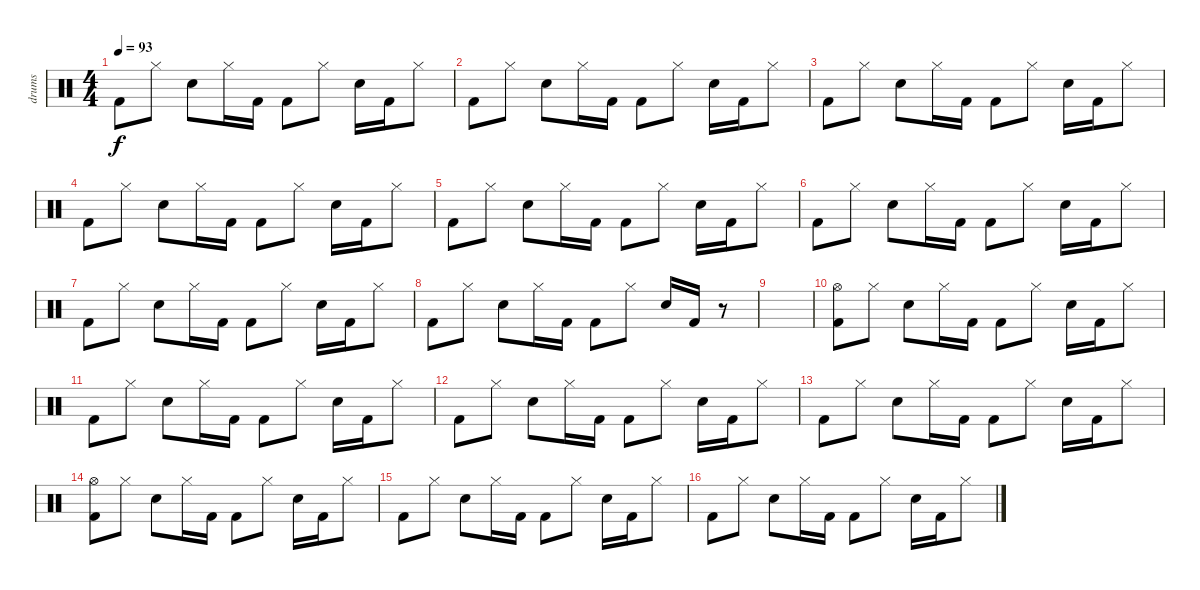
\track ("drums" "drums") {instrument percussion}
\staff {score}
\articulation defaults
\ts (4 4)
\tempo 93
\clef neutral
\ks c "Kick (hit) 2".8{dy f} "Hi-Hat (closed)".8 "Snare (hit) 2".8 "Hi-Hat (closed)".16 "Kick (hit) 2".16 "Kick (hit) 2".8 "Hi-Hat (closed)".8 "Snare (hit) 2".16 "Kick (hit) 2".16 "Hi-Hat (closed)".8
|
"Kick (hit) 2".8 "Hi-Hat (closed)".8 "Snare (hit) 2".8 "Hi-Hat (closed)".16 "Kick (hit) 2".16 "Kick (hit) 2".8 "Hi-Hat (closed)".8 "Snare (hit) 2".16 "Kick (hit) 2".16 "Hi-Hat (closed)".8 |
"Kick (hit) 2".8 "Hi-Hat (closed)".8 "Snare (hit) 2".8 "Hi-Hat (closed)".16 "Kick (hit) 2".16 "Kick (hit) 2".8 "Hi-Hat (closed)".8 "Snare (hit) 2".16 "Kick (hit) 2".16 "Hi-Hat (closed)".8 |
"Kick (hit) 2".8 "Hi-Hat (closed)".8 "Snare (hit) 2".8 "Hi-Hat (closed)".16 "Kick (hit) 2".16 "Kick (hit) 2".8 "Hi-Hat (closed)".8 "Snare (hit) 2".16 "Kick (hit) 2".16 "Hi-Hat (closed)".8 |
"Kick (hit) 2".8 "Hi-Hat (closed)".8 "Snare (hit) 2".8 "Hi-Hat (closed)".16 "Kick (hit) 2".16 "Kick (hit) 2".8 "Hi-Hat (closed)".8 "Snare (hit) 2".16 "Kick (hit) 2".16 "Hi-Hat (closed)".8 |
"Kick (hit) 2".8 "Hi-Hat (closed)".8 "Snare (hit) 2".8 "Hi-Hat (closed)".16 "Kick (hit) 2".16 "Kick (hit) 2".8 "Hi-Hat (closed)".8 "Snare (hit) 2".16 "Kick (hit) 2".16 "Hi-Hat (closed)".8 |
"Kick (hit) 2".8 "Hi-Hat (closed)".8 "Snare (hit) 2".8 "Hi-Hat (closed)".16 "Kick (hit) 2".16 "Kick (hit) 2".8 "Hi-Hat (closed)".8 "Snare (hit) 2".16 "Kick (hit) 2".16 "Hi-Hat (closed)".8 |
"Kick (hit) 2".8 "Hi-Hat (closed)".8 "Snare (hit) 2".8 "Hi-Hat (closed)".16 "Kick (hit) 2".16 "Kick (hit) 2".8 "Hi-Hat (closed)".8 "Snare (hit) 2".16 "Kick (hit) 2".16 r.8 |
|
("Hi-Hat (open)" "Kick (hit) 2").8 "Hi-Hat (closed)".8 "Snare (hit) 2".8 "Hi-Hat (closed)".16 "Kick (hit) 2".16 "Kick (hit) 2".8 "Hi-Hat (closed)".8 "Snare (hit) 2".16 "Kick (hit) 2".16 "Hi-Hat (closed)".8 |
"Kick (hit) 2".8 "Hi-Hat (closed)".8 "Snare (hit) 2".8 "Hi-Hat (closed)".16 "Kick (hit) 2".16 "Kick (hit) 2".8 "Hi-Hat (closed)".8 "Snare (hit) 2".16 "Kick (hit) 2".16 "Hi-Hat (closed)".8 |
"Kick (hit) 2".8 "Hi-Hat (closed)".8 "Snare (hit) 2".8 "Hi-Hat (closed)".16 "Kick (hit) 2".16 "Kick (hit) 2".8 "Hi-Hat (closed)".8 "Snare (hit) 2".16 "Kick (hit) 2".16 "Hi-Hat (closed)".8 |
"Kick (hit) 2".8 "Hi-Hat (closed)".8 "Snare (hit) 2".8 "Hi-Hat (closed)".16 "Kick (hit) 2".16 "Kick (hit) 2".8 "Hi-Hat (closed)".8 "Snare (hit) 2".16 "Kick (hit) 2".16 "Hi-Hat (closed)".8 |
("Hi-Hat (open)" "Kick (hit) 2").8 "Hi-Hat (closed)".8 "Snare (hit) 2".8 "Hi-Hat (closed)".16 "Kick (hit) 2".16 "Kick (hit) 2".8 "Hi-Hat (closed)".8 "Snare (hit) 2".16 "Kick (hit) 2".16 "Hi-Hat (closed)".8 |
"Kick (hit) 2".8 "Hi-Hat (closed)".8 "Snare (hit) 2".8 "Hi-Hat (closed)".16 "Kick (hit) 2".16 "Kick (hit) 2".8 "Hi-Hat (closed)".8 "Snare (hit) 2".16 "Kick (hit) 2".16 "Hi-Hat (closed)".8 |
"Kick (hit) 2".8 "Hi-Hat (closed)".8 "Snare (hit) 2".8 "Hi-Hat (closed)".16 "Kick (hit) 2".16 "Kick (hit) 2".8 "Hi-Hat (closed)".8 "Snare (hit) 2".16 "Kick (hit) 2".16 "Hi-Hat (closed)".8
